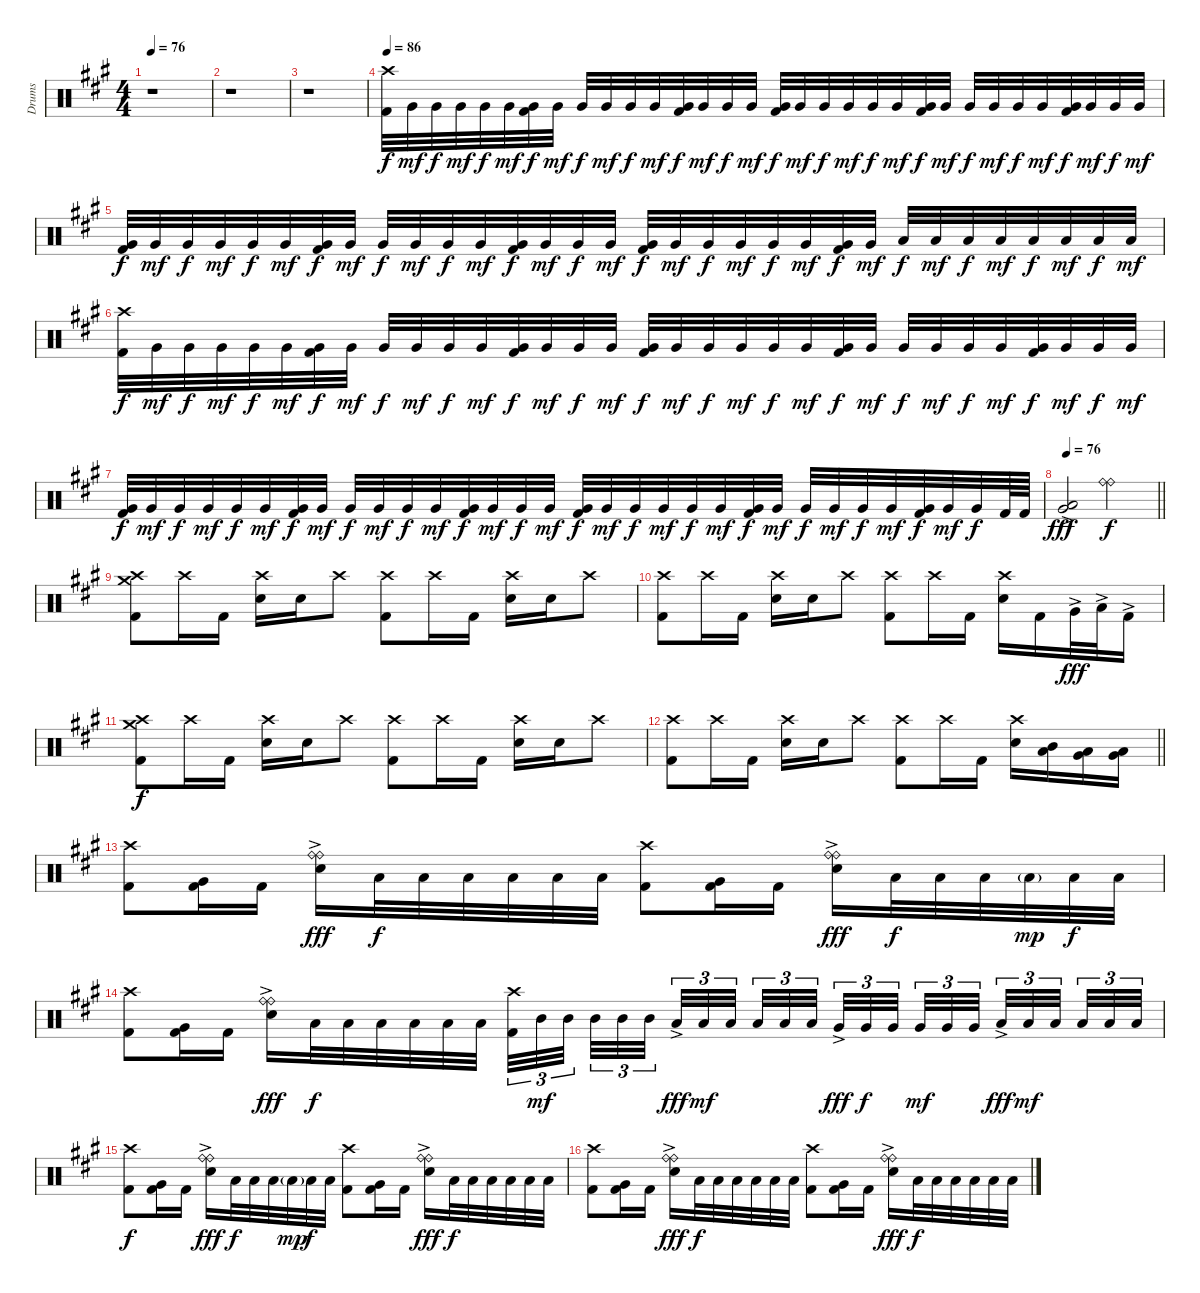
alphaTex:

\track ("Drums" "Drums") {instrument percussion}
\staff {score}
\articulation defaults
\ts (4 4)
\tempo 76
\clef neutral
\ks f#minor
r.1{dy f} |
r.1 |
r.1 |
\tempo 86
("Crash high (hit)" "Kick (hit) 2").32 "Very Low Tom (hit)".32{dy mf} "Very Low Tom (hit)".32{dy f} "Very Low Tom (hit)".32{dy mf} "Very Low Tom (hit)".32{dy f} "Very Low Tom (hit)".32{dy mf} ("Very Low Tom (hit)" "Kick (hit) 2").32{dy f} "Very Low Tom (hit)".32{dy mf} "Very Low Tom (hit)".32{dy f} "Very Low Tom (hit)".32{dy mf} "Very Low Tom (hit)".32{dy f} "Very Low Tom (hit)".32{dy mf} ("Very Low Tom (hit)" "Kick (hit) 2").32{dy f} "Very Low Tom (hit)".32{dy mf} "Very Low Tom (hit)".32{dy f} "Very Low Tom (hit)".32{dy mf} ("Very Low Tom (hit)" "Kick (hit) 2").32{dy f} "Very Low Tom (hit)".32{dy mf} "Very Low Tom (hit)".32{dy f} "Very Low Tom (hit)".32{dy mf} "Very Low Tom (hit)".32{dy f} "Very Low Tom (hit)".32{dy mf} ("Very Low Tom (hit)" "Kick (hit) 2").32{dy f} "Very Low Tom (hit)".32{dy mf} "Very Low Tom (hit)".32{dy f} "Very Low Tom (hit)".32{dy mf} "Very Low Tom (hit)".32{dy f} "Very Low Tom (hit)".32{dy mf} ("Very Low Tom (hit)" "Kick (hit) 2").32{dy f} "Very Low Tom (hit)".32{dy mf} "Very Low Tom (hit)".32{dy f} "Very Low Tom (hit)".32{dy mf} |
("Very Low Tom (hit)" "Kick (hit) 2").32{dy f} "Very Low Tom (hit)".32{dy mf} "Very Low Tom (hit)".32{dy f} "Very Low Tom (hit)".32{dy mf} "Very Low Tom (hit)".32{dy f} "Very Low Tom (hit)".32{dy mf} ("Very Low Tom (hit)" "Kick (hit) 2").32{dy f} "Very Low Tom (hit)".32{dy mf} "Very Low Tom (hit)".32{dy f} "Very Low Tom (hit)".32{dy mf} "Very Low Tom (hit)".32{dy f} "Very Low Tom (hit)".32{dy mf} ("Very Low Tom (hit)" "Kick (hit) 2").32{dy f} "Very Low Tom (hit)".32{dy mf} "Very Low Tom (hit)".32{dy f} "Very Low Tom (hit)".32{dy mf} ("Very Low Tom (hit)" "Kick (hit) 2").32{dy f} "Very Low Tom (hit)".32{dy mf} "Very Low Tom (hit)".32{dy f} "Very Low Tom (hit)".32{dy mf} "Very Low Tom (hit)".32{dy f} "Very Low Tom (hit)".32{dy mf} ("Very Low Tom (hit)" "Kick (hit) 2").32{dy f} "Very Low Tom (hit)".32{dy mf} "Low Tom (hit)".32{dy f} "Low Tom (hit)".32{dy mf} "Low Tom (hit)".32{dy f} "Low Tom (hit)".32{dy mf} "Low Tom (hit)".32{dy f} "Low Tom (hit)".32{dy mf} "Low Tom (hit)".32{dy f} "Low Tom (hit)".32{dy mf} |
("Crash high (hit)" "Kick (hit) 2").32{dy f} "Very Low Tom (hit)".32{dy mf} "Very Low Tom (hit)".32{dy f} "Very Low Tom (hit)".32{dy mf} "Very Low Tom (hit)".32{dy f} "Very Low Tom (hit)".32{dy mf} ("Very Low Tom (hit)" "Kick (hit) 2").32{dy f} "Very Low Tom (hit)".32{dy mf} "Very Low Tom (hit)".32{dy f} "Very Low Tom (hit)".32{dy mf} "Very Low Tom (hit)".32{dy f} "Very Low Tom (hit)".32{dy mf} ("Very Low Tom (hit)" "Kick (hit) 2").32{dy f} "Very Low Tom (hit)".32{dy mf} "Very Low Tom (hit)".32{dy f} "Very Low Tom (hit)".32{dy mf} ("Very Low Tom (hit)" "Kick (hit) 2").32{dy f} "Very Low Tom (hit)".32{dy mf} "Very Low Tom (hit)".32{dy f} "Very Low Tom (hit)".32{dy mf} "Very Low Tom (hit)".32{dy f} "Very Low Tom (hit)".32{dy mf} ("Very Low Tom (hit)" "Kick (hit) 2").32{dy f} "Very Low Tom (hit)".32{dy mf} "Very Low Tom (hit)".32{dy f} "Very Low Tom (hit)".32{dy mf} "Very Low Tom (hit)".32{dy f} "Very Low Tom (hit)".32{dy mf} ("Very Low Tom (hit)" "Kick (hit) 2").32{dy f} "Very Low Tom (hit)".32{dy mf} "Very Low Tom (hit)".32{dy f} "Very Low Tom (hit)".32{dy mf} |
("Very Low Tom (hit)" "Kick (hit) 2").32{dy f} "Very Low Tom (hit)".32{dy mf} "Very Low Tom (hit)".32{dy f} "Very Low Tom (hit)".32{dy mf} "Very Low Tom (hit)".32{dy f} "Very Low Tom (hit)".32{dy mf} ("Very Low Tom (hit)" "Kick (hit) 2").32{dy f} "Very Low Tom (hit)".32{dy mf} "Very Low Tom (hit)".32{dy f} "Very Low Tom (hit)".32{dy mf} "Very Low Tom (hit)".32{dy f} "Very Low Tom (hit)".32{dy mf} ("Very Low Tom (hit)" "Kick (hit) 2").32{dy f} "Very Low Tom (hit)".32{dy mf} "Very Low Tom (hit)".32{dy f} "Very Low Tom (hit)".32{dy mf} ("Very Low Tom (hit)" "Kick (hit) 2").32{dy f} "Very Low Tom (hit)".32{dy mf} "Very Low Tom (hit)".32{dy f} "Very Low Tom (hit)".32{dy mf} "Very Low Tom (hit)".32{dy f} "Very Low Tom (hit)".32{dy mf} ("Very Low Tom (hit)" "Kick (hit) 2").32{dy f} "Very Low Tom (hit)".32{dy mf} "Very Low Tom (hit)".32{dy f} "Very Low Tom (hit)".32{dy mf} "Very Low Tom (hit)".32{dy f} "Very Low Tom (hit)".32{dy mf} ("Very Low Tom (hit)" "Kick (hit) 2").32{dy f} "Very Low Tom (hit)".32{dy mf} "Very Low Tom (hit)".32{dy f} "Kick (hit) 2".64 "Kick (hit) 2".64 |
\tempo 76
\barLineRight lightlight
("Very Low Tom (hit)"{ac} "Low Floor Tom (hit)"{ac}).2{dy fff} ("Ride (bell)" "Ride (bell)").2{dy f} |
("Crash high (hit)" "Crash medium (hit)" "Kick (hit) 2").8 "Crash high (hit)".16 "Kick (hit) 2".16 ("Crash high (hit)" "Snare (hit) 2").16 "Snare (hit) 2".16 "Crash high (hit)".8 ("Crash high (hit)" "Kick (hit) 2").8 "Crash high (hit)".16 "Kick (hit) 2".16 ("Crash high (hit)" "Snare (hit) 2").16 "Snare (hit) 2".16 "Crash high (hit)".8 |
("Crash high (hit)" "Kick (hit) 2").8 "Crash high (hit)".16 "Kick (hit) 2".16 ("Crash high (hit)" "Snare (hit) 2").16 "Snare (hit) 2".16 "Crash high (hit)".8 ("Crash high (hit)" "Kick (hit) 2").8 "Crash high (hit)".16 "Kick (hit) 2".16 ("Crash high (hit)" "Snare (hit) 2").16 "Kick (hit) 2".16 "Very Low Tom (hit)"{ac}.32{dy fff} "Low Tom (hit)"{ac}.32 "Kick (hit) 2"{ac}.16 |
("Crash high (hit)" "Crash medium (hit)" "Kick (hit) 2").8{dy f} "Crash high (hit)".16 "Kick (hit) 2".16 ("Crash high (hit)" "Snare (hit) 2").16 "Snare (hit) 2".16 "Crash high (hit)".8 ("Crash high (hit)" "Kick (hit) 2").8 "Crash high (hit)".16 "Kick (hit) 2".16 ("Crash high (hit)" "Snare (hit) 2").16 "Snare (hit) 2".16 "Crash high (hit)".8 |
\barLineRight lightlight
("Crash high (hit)" "Kick (hit) 2").8 "Crash high (hit)".16 "Kick (hit) 2".16 ("Crash high (hit)" "Snare (hit) 2").16 "Snare (hit) 2".16 "Crash high (hit)".8 ("Crash high (hit)" "Kick (hit) 2").8 "Crash high (hit)".16 "Kick (hit) 2".16 ("Crash high (hit)" "Snare (hit) 2").16 ("Mid Tom (hit)" "Low Tom (hit)").16 ("Low Tom (hit)" "Very Low Tom (hit)").16 ("Very Low Tom (hit)" "Low Floor Tom (hit)").16 |
("Crash high (hit)" "Kick (hit) 2").8 ("Very Low Tom (hit)" "Kick (hit) 2").16 "Kick (hit) 2".16 ("Ride (bell)"{ac} "Ride (bell)"{ac} "Snare (hit) 2").16{dy fff} "Low Tom (hit)".32{dy f} "Low Tom (hit)".32 "Low Tom (hit)".32 "Low Tom (hit)".32 "Low Tom (hit)".32 "Low Tom (hit)".32 ("Crash high (hit)" "Kick (hit) 2").8 ("Very Low Tom (hit)" "Kick (hit) 2").16 "Kick (hit) 2".16 ("Ride (bell)"{ac} "Ride (bell)"{ac} "Snare (hit) 2").16{dy fff} "Low Tom (hit)".32{dy f} "Low Tom (hit)".32 "Low Tom (hit)".32 "Low Tom (hit)"{g}.32{dy mp} "Low Tom (hit)".32{dy f} "Low Tom (hit)".32 |
("Crash high (hit)" "Kick (hit) 2").8 ("Very Low Tom (hit)" "Kick (hit) 2").16 "Kick (hit) 2".16 ("Ride (bell)"{ac} "Ride (bell)"{ac} "Snare (hit) 2").16{dy fff} "Low Tom (hit)".32{dy f} "Low Tom (hit)".32 "Low Tom (hit)".32 "Low Tom (hit)".32 "Low Tom (hit)".32 "Low Tom (hit)".32 ("Crash high (hit)" "Kick (hit) 2").32{tu (3 2)} "Mid Tom (hit)".32{tu (3 2) dy mf} "Mid Tom (hit)".32{tu (3 2)} "Mid Tom (hit)".32{tu (3 2)} "Mid Tom (hit)".32{tu (3 2)} "Mid Tom (hit)".32{tu (3 2)} "Low Tom (hit)"{ac}.32{tu (3 2) dy fff} "Low Tom (hit)".32{tu (3 2) dy mf} "Low Tom (hit)".32{tu (3 2)} "Low Tom (hit)".32{tu (3 2)} "Low Tom (hit)".32{tu (3 2)} "Low Tom (hit)".32{tu (3 2)} "Very Low Tom (hit)"{ac}.32{tu (3 2) dy fff} "Very Low Tom (hit)".32{tu (3 2) dy f} "Very Low Tom (hit)".32{tu (3 2)} "Very Low Tom (hit)".32{tu (3 2) dy mf} "Very Low Tom (hit)".32{tu (3 2)} "Very Low Tom (hit)".32{tu (3 2)} "Low Floor Tom (hit)"{ac}.32{tu (3 2) dy fff} "Low Floor Tom (hit)".32{tu (3 2) dy mf} "Low Floor Tom (hit)".32{tu (3 2)} "Low Floor Tom (hit)".32{tu (3 2)} "Low Floor Tom (hit)".32{tu (3 2)} "Low Floor Tom (hit)".32{tu (3 2)} |
("Crash high (hit)" "Kick (hit) 2").8{dy f} ("Very Low Tom (hit)" "Kick (hit) 2").16 "Kick (hit) 2".16 ("Ride (bell)"{ac} "Ride (bell)"{ac} "Snare (hit) 2").16{dy fff} "Low Tom (hit)".32{dy f} "Low Tom (hit)".32 "Low Tom (hit)".32 "Low Tom (hit)"{g}.32{dy mp} "Low Tom (hit)".32{dy f} "Low Tom (hit)".32 ("Crash high (hit)" "Kick (hit) 2").8 ("Very Low Tom (hit)" "Kick (hit) 2").16 "Kick (hit) 2".16 ("Ride (bell)"{ac} "Ride (bell)"{ac} "Snare (hit) 2").16{dy fff} "Low Tom (hit)".32{dy f} "Low Tom (hit)".32 "Low Tom (hit)".32 "Low Tom (hit)".32 "Low Tom (hit)".32 "Low Tom (hit)".32 |
("Crash high (hit)" "Kick (hit) 2").8 ("Very Low Tom (hit)" "Kick (hit) 2").16 "Kick (hit) 2".16 ("Ride (bell)"{ac} "Ride (bell)"{ac} "Snare (hit) 2").16{dy fff} "Low Tom (hit)".32{dy f} "Low Tom (hit)".32 "Low Tom (hit)".32 "Low Tom (hit)".32 "Low Tom (hit)".32 "Low Tom (hit)".32 ("Crash high (hit)" "Kick (hit) 2").8 ("Very Low Tom (hit)" "Kick (hit) 2").16 "Kick (hit) 2".16 ("Ride (bell)"{ac} "Ride (bell)"{ac} "Snare (hit) 2").16{dy fff} "Low Tom (hit)".32{dy f} "Low Tom (hit)".32 "Low Tom (hit)".32 "Low Tom (hit)".32 "Low Tom (hit)".32 "Low Tom (hit)".32
